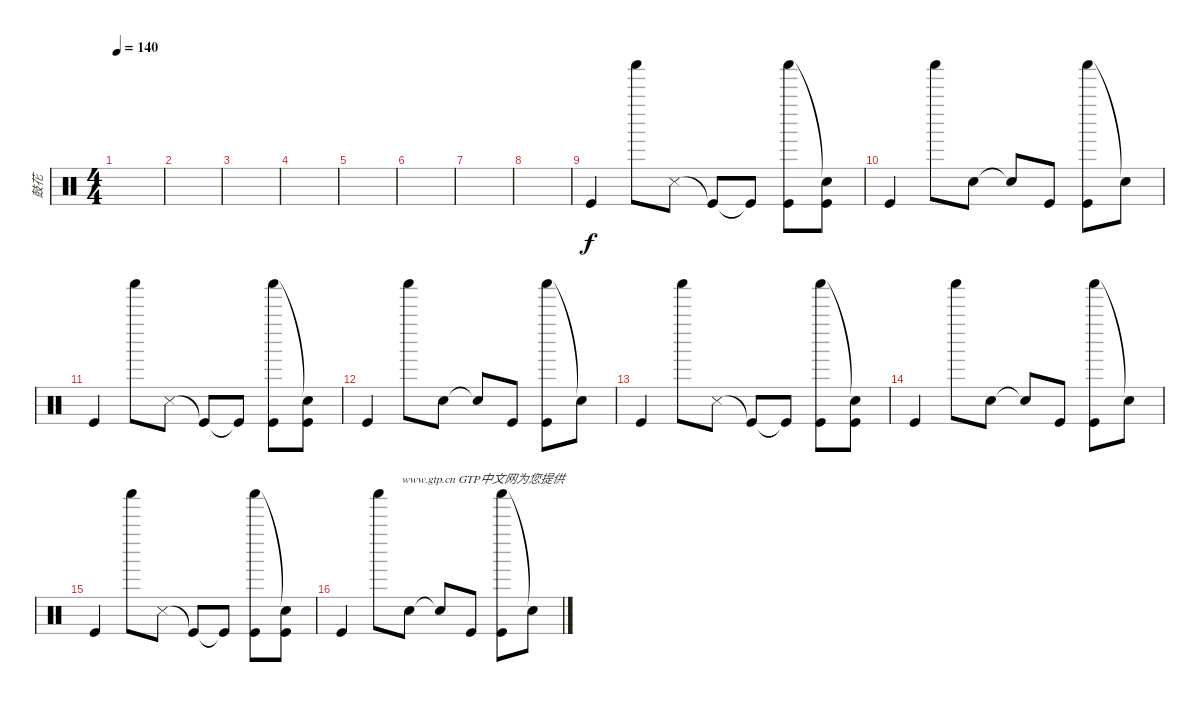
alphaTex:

\track ("鼓花" "鼓花") {instrument percussion}
\staff {score}
\articulation defaults
\ts (4 4)
\tempo 140
\clef neutral
\ks c
|
|
|
|
|
|
|
|
"Kick (hit)".4 "Shaker (hit)".8 "Snare (side stick) 3".8 "Kick (hit)"{t}.8 "Kick (hit)"{t}.8 ("Shaker (hit)" "Kick (hit)").8 ("Snare (hit)"{t} "Kick (hit)").8 |
"Kick (hit)".4 "Shaker (hit)".8 "Hand Clap (hit)".8 "Snare (hit)"{t}.8 "Kick (hit)".8 ("Shaker (hit)" "Kick (hit)").8 "Snare (hit)"{t}.8 |
"Kick (hit)".4 "Shaker (hit)".8 "Snare (side stick) 3".8 "Kick (hit)"{t}.8 "Kick (hit)"{t}.8 ("Shaker (hit)" "Kick (hit)").8 ("Snare (hit)"{t} "Kick (hit)").8 |
"Kick (hit)".4 "Shaker (hit)".8 "Hand Clap (hit)".8 "Snare (hit)"{t}.8 "Kick (hit)".8 ("Shaker (hit)" "Kick (hit)").8 "Snare (hit)"{t}.8 |
"Kick (hit)".4 "Shaker (hit)".8 "Snare (side stick) 3".8 "Kick (hit)"{t}.8 "Kick (hit)"{t}.8 ("Shaker (hit)" "Kick (hit)").8 ("Snare (hit)"{t} "Kick (hit)").8 |
"Kick (hit)".4 "Shaker (hit)".8 "Hand Clap (hit)".8 "Snare (hit)"{t}.8 "Kick (hit)".8 ("Shaker (hit)" "Kick (hit)").8 "Snare (hit)"{t}.8 |
"Kick (hit)".4 "Shaker (hit)".8 "Snare (side stick) 3".8 "Kick (hit)"{t}.8 "Kick (hit)"{t}.8 ("Shaker (hit)" "Kick (hit)").8 ("Snare (hit)"{t} "Kick (hit)").8 |
"Kick (hit)".4{txt "                    www.gtp.cn GTP中文网为您提供"} "Shaker (hit)".8 "Hand Clap (hit)".8 "Snare (hit)"{t}.8 "Kick (hit)".8 ("Shaker (hit)" "Kick (hit)").8 "Snare (hit)"{t}.8
